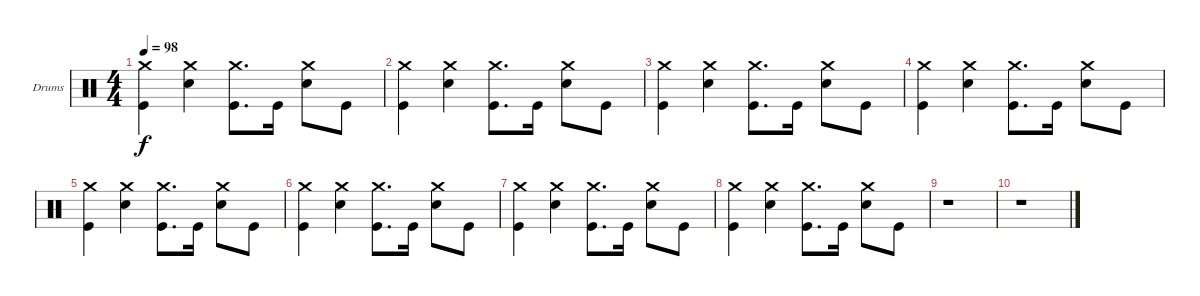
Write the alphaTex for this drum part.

\bracketExtendMode groupsimilarinstruments
\firstSystemTrackNameOrientation horizontal
\otherSystemsTrackNameOrientation horizontal
\track ("Drumkit" "Drums") {instrument percussion}
\staff {score}
\articulation defaults
\ts (4 4)
\tempo 98
\clef neutral
\ks c
("Crash medium (hit)" "Kick (hit)").4{dy f} ("Crash medium (hit)" "Snare (hit) 2").4 ("Crash medium (hit)" "Kick (hit)").8{d} "Kick (hit)".16 ("Crash medium (hit)" "Snare (hit) 2").8 "Kick (hit)".8 |
("Crash medium (hit)" "Kick (hit)").4 ("Crash medium (hit)" "Snare (hit) 2").4 ("Crash medium (hit)" "Kick (hit)").8{d} "Kick (hit)".16 ("Crash medium (hit)" "Snare (hit) 2").8 "Kick (hit)".8 |
("Crash medium (hit)" "Kick (hit)").4 ("Crash medium (hit)" "Snare (hit) 2").4 ("Crash medium (hit)" "Kick (hit)").8{d} "Kick (hit)".16 ("Crash medium (hit)" "Snare (hit) 2").8 "Kick (hit)".8 |
("Crash medium (hit)" "Kick (hit)").4 ("Crash medium (hit)" "Snare (hit) 2").4 ("Crash medium (hit)" "Kick (hit)").8{d} "Kick (hit)".16 ("Crash medium (hit)" "Snare (hit) 2").8 "Kick (hit)".8 |
("Crash medium (hit)" "Kick (hit)").4 ("Crash medium (hit)" "Snare (hit) 2").4 ("Crash medium (hit)" "Kick (hit)").8{d} "Kick (hit)".16 ("Crash medium (hit)" "Snare (hit) 2").8 "Kick (hit)".8 |
("Crash medium (hit)" "Kick (hit)").4 ("Crash medium (hit)" "Snare (hit) 2").4 ("Crash medium (hit)" "Kick (hit)").8{d} "Kick (hit)".16 ("Crash medium (hit)" "Snare (hit) 2").8 "Kick (hit)".8 |
("Crash medium (hit)" "Kick (hit)").4 ("Crash medium (hit)" "Snare (hit) 2").4 ("Crash medium (hit)" "Kick (hit)").8{d} "Kick (hit)".16 ("Crash medium (hit)" "Snare (hit) 2").8 "Kick (hit)".8 |
("Crash medium (hit)" "Kick (hit)").4 ("Crash medium (hit)" "Snare (hit) 2").4 ("Crash medium (hit)" "Kick (hit)").8{d} "Kick (hit)".16 ("Crash medium (hit)" "Snare (hit) 2").8 "Kick (hit)".8 |
r.1 |
r.1
